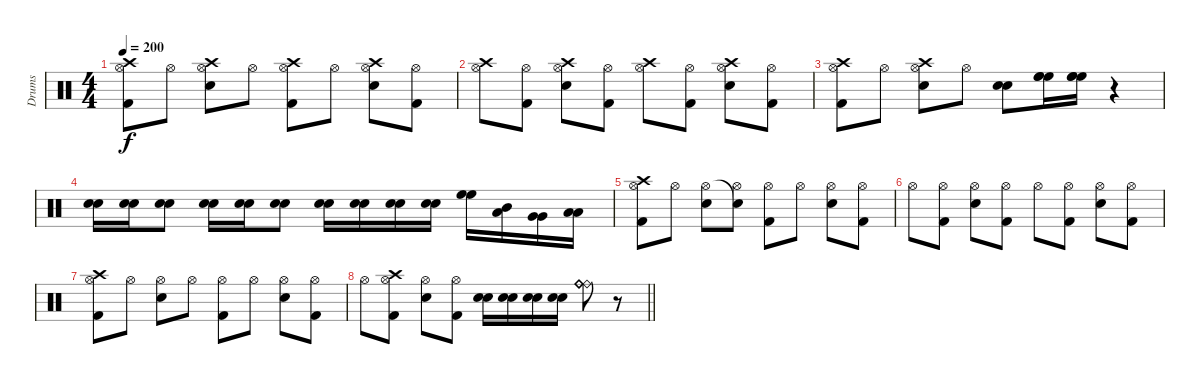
\track ("Drums" "Drums") {instrument percussion}
\staff {score}
\articulation defaults
\ts (4 4)
\tempo 200
\clef neutral
\ks c
("Crash high (hit)" "Hi-Hat (open)" "Kick (hit) 2").8{dy f} "Hi-Hat (open)".8 ("Crash high (hit)" "Hi-Hat (open)" "Electric Snare (hit)").8 "Hi-Hat (open)".8 ("Crash high (hit)" "Hi-Hat (open)" "Kick (hit) 2").8 "Hi-Hat (open)".8 ("Crash high (hit)" "Hi-Hat (open)" "Electric Snare (hit)").8 ("Hi-Hat (open)" "Kick (hit) 2").8 |
("Crash high (hit)" "Hi-Hat (open)").8 ("Hi-Hat (open)" "Kick (hit) 2").8 ("Crash high (hit)" "Hi-Hat (open)" "Electric Snare (hit)").8 ("Hi-Hat (open)" "Kick (hit) 2").8 ("Crash high (hit)" "Hi-Hat (open)").8 ("Hi-Hat (open)" "Kick (hit) 2").8 ("Crash high (hit)" "Hi-Hat (open)" "Electric Snare (hit)").8 ("Hi-Hat (open)" "Kick (hit) 2").8 |
("Crash high (hit)" "Hi-Hat (open)" "Kick (hit) 2").8 "Hi-Hat (open)".8 ("Crash high (hit)" "Hi-Hat (open)" "Electric Snare (hit)").8 "Hi-Hat (open)".8 ("Snare (hit) 2" "Electric Snare (hit)").8 ("High Floor Tom (hit)" "High Floor Tom (hit)" "High Floor Tom (hit)").16 ("High Floor Tom (hit)" "High Floor Tom (hit)" "High Floor Tom (hit)").16 r.4 |
("Snare (hit) 2" "Electric Snare (hit)").16 ("Snare (hit) 2" "Electric Snare (hit)").16 ("Snare (hit) 2" "Electric Snare (hit)").8 ("Snare (hit) 2" "Electric Snare (hit)").16 ("Snare (hit) 2" "Electric Snare (hit)").16 ("Snare (hit) 2" "Electric Snare (hit)").8 ("Snare (hit) 2" "Electric Snare (hit)").16 ("Snare (hit) 2" "Electric Snare (hit)").16 ("Snare (hit) 2" "Electric Snare (hit)").16 ("Snare (hit) 2" "Electric Snare (hit)").16 ("High Floor Tom (hit)" "High Floor Tom (hit)").16 ("Low Tom (hit)" "Mid Tom (hit)").16 ("Very Low Tom (hit)" "Very Low Tom (hit)").16 ("Low Floor Tom (hit)" "Low Floor Tom (hit)").16 |
("Crash high (hit)" "Hi-Hat (open)" "Kick (hit) 2").8 "Hi-Hat (open)".8 ("Hi-Hat (open)" "Electric Snare (hit)").8 ("Snare (hit)"{t} "Hi-Hat (open)").8 ("Hi-Hat (open)" "Kick (hit) 2").8 "Hi-Hat (open)".8 ("Hi-Hat (open)" "Electric Snare (hit)").8 ("Hi-Hat (open)" "Kick (hit) 2").8 |
"Hi-Hat (open)".8 ("Hi-Hat (open)" "Kick (hit) 2").8 ("Hi-Hat (open)" "Electric Snare (hit)").8 ("Hi-Hat (open)" "Kick (hit) 2").8 "Hi-Hat (open)".8 ("Hi-Hat (open)" "Kick (hit) 2").8 ("Hi-Hat (open)" "Electric Snare (hit)").8 ("Hi-Hat (open)" "Kick (hit) 2").8 |
("Crash high (hit)" "Hi-Hat (open)" "Kick (hit) 2").8 "Hi-Hat (open)".8 ("Hi-Hat (open)" "Electric Snare (hit)").8 "Hi-Hat (open)".8 ("Hi-Hat (open)" "Kick (hit) 2").8 "Hi-Hat (open)".8 ("Hi-Hat (open)" "Electric Snare (hit)").8 ("Hi-Hat (open)" "Kick (hit) 2").8 |
\barLineRight lightlight "Hi-Hat (open)".8
("Crash high (hit)" "Hi-Hat (open)" "Kick (hit) 2").8 ("Hi-Hat (open)" "Electric Snare (hit)").8 ("Hi-Hat (open)" "Kick (hit) 2").8 ("Electric Snare (hit)" "Snare (hit) 2").16 ("Electric Snare (hit)" "Snare (hit) 2").16 ("Electric Snare (hit)" "Snare (hit) 2").16 ("Electric Snare (hit)" "Snare (hit) 2").16 ("Ride (bell)" "Ride (bell)" "Ride (bell)" "Ride (bell)" "Ride (bell)" "Ride (bell)").8 r.8
